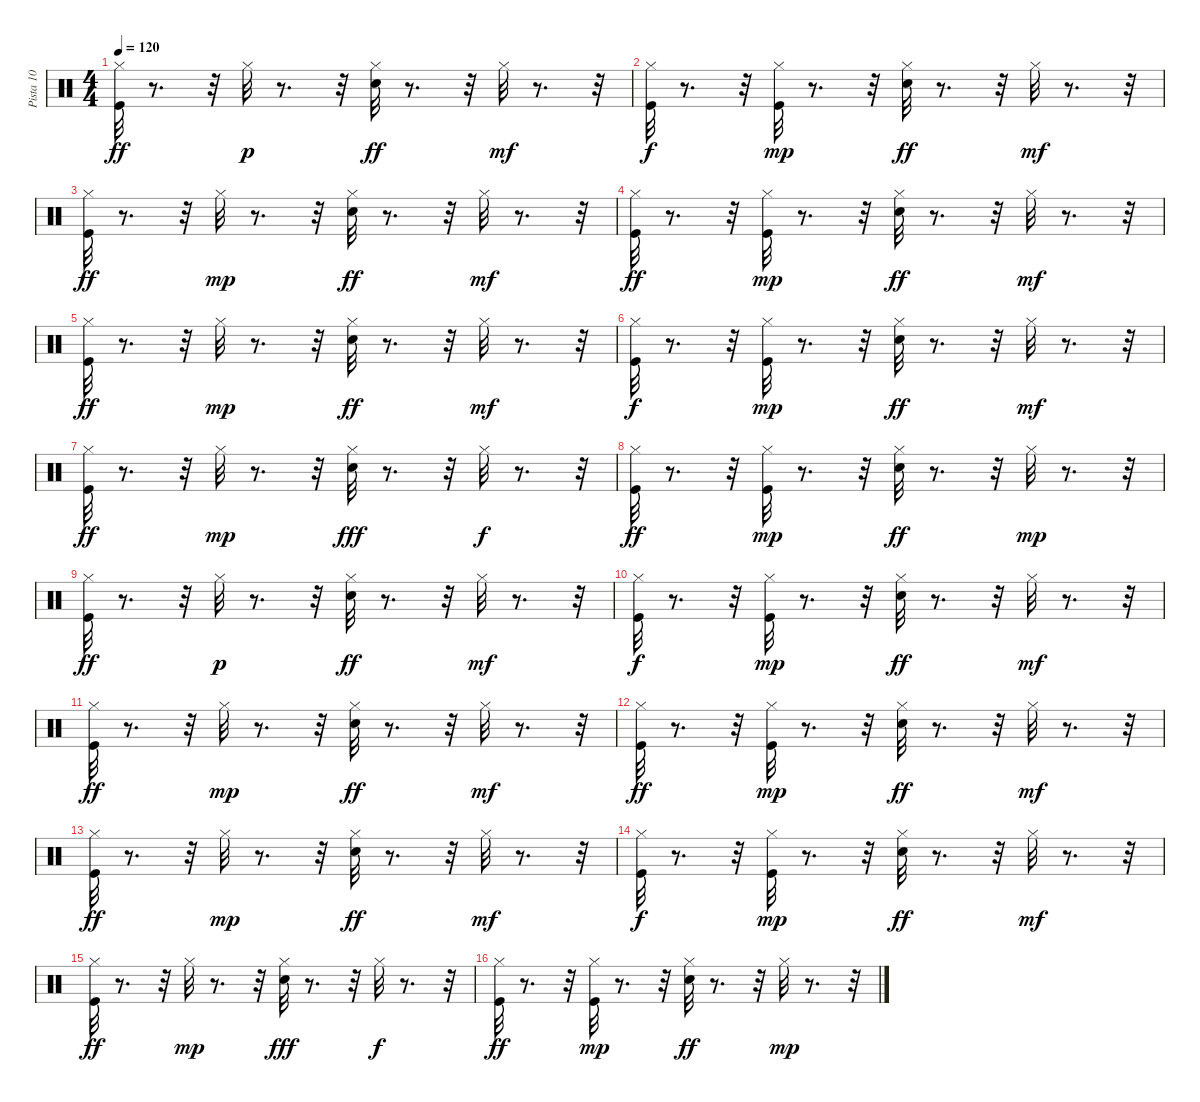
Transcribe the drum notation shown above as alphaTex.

\track ("Pista 10" "Pista 10") {instrument percussion}
\staff {score}
\articulation defaults
\ts (4 4)
\tempo 120
\clef neutral
\ks c
("Kick (hit)" "Hi-Hat (closed)").32{dy ff} r.8{d} r.32 "Hi-Hat (closed)".32{dy p} r.8{d} r.32 ("Snare (hit) 2" "Hi-Hat (closed)").32{dy ff} r.8{d} r.32 "Hi-Hat (closed)".32{dy mf} r.8{d} r.32 |
("Kick (hit)" "Hi-Hat (closed)").32{dy f} r.8{d} r.32 ("Kick (hit)" "Hi-Hat (closed)").32{dy mp} r.8{d} r.32 ("Snare (hit) 2" "Hi-Hat (closed)").32{dy ff} r.8{d} r.32 "Hi-Hat (closed)".32{dy mf} r.8{d} r.32 |
("Kick (hit)" "Hi-Hat (closed)").32{dy ff} r.8{d} r.32 "Hi-Hat (closed)".32{dy mp} r.8{d} r.32 ("Snare (hit) 2" "Hi-Hat (closed)").32{dy ff} r.8{d} r.32 "Hi-Hat (closed)".32{dy mf} r.8{d} r.32 |
("Kick (hit)" "Hi-Hat (closed)").32{dy ff} r.8{d} r.32 ("Kick (hit)" "Hi-Hat (closed)").32{dy mp} r.8{d} r.32 ("Snare (hit) 2" "Hi-Hat (closed)").32{dy ff} r.8{d} r.32 "Hi-Hat (closed)".32{dy mf} r.8{d} r.32 |
("Kick (hit)" "Hi-Hat (closed)").32{dy ff} r.8{d} r.32 "Hi-Hat (closed)".32{dy mp} r.8{d} r.32 ("Snare (hit) 2" "Hi-Hat (closed)").32{dy ff} r.8{d} r.32 "Hi-Hat (closed)".32{dy mf} r.8{d} r.32 |
("Kick (hit)" "Hi-Hat (closed)").32{dy f} r.8{d} r.32 ("Kick (hit)" "Hi-Hat (closed)").32{dy mp} r.8{d} r.32 ("Snare (hit) 2" "Hi-Hat (closed)").32{dy ff} r.8{d} r.32 "Hi-Hat (closed)".32{dy mf} r.8{d} r.32 |
("Kick (hit)" "Hi-Hat (closed)").32{dy ff} r.8{d} r.32 "Hi-Hat (closed)".32{dy mp} r.8{d} r.32 ("Snare (hit) 2" "Hi-Hat (closed)").32{dy fff} r.8{d} r.32 "Hi-Hat (closed)".32{dy f} r.8{d} r.32 |
("Kick (hit)" "Hi-Hat (closed)").32{dy ff} r.8{d} r.32 ("Kick (hit)" "Hi-Hat (closed)").32{dy mp} r.8{d} r.32 ("Snare (hit) 2" "Hi-Hat (closed)").32{dy ff} r.8{d} r.32 "Hi-Hat (closed)".32{dy mp} r.8{d} r.32 |
("Kick (hit)" "Hi-Hat (closed)").32{dy ff} r.8{d} r.32 "Hi-Hat (closed)".32{dy p} r.8{d} r.32 ("Snare (hit) 2" "Hi-Hat (closed)").32{dy ff} r.8{d} r.32 "Hi-Hat (closed)".32{dy mf} r.8{d} r.32 |
("Kick (hit)" "Hi-Hat (closed)").32{dy f} r.8{d} r.32 ("Kick (hit)" "Hi-Hat (closed)").32{dy mp} r.8{d} r.32 ("Snare (hit) 2" "Hi-Hat (closed)").32{dy ff} r.8{d} r.32 "Hi-Hat (closed)".32{dy mf} r.8{d} r.32 |
("Kick (hit)" "Hi-Hat (closed)").32{dy ff} r.8{d} r.32 "Hi-Hat (closed)".32{dy mp} r.8{d} r.32 ("Snare (hit) 2" "Hi-Hat (closed)").32{dy ff} r.8{d} r.32 "Hi-Hat (closed)".32{dy mf} r.8{d} r.32 |
("Kick (hit)" "Hi-Hat (closed)").32{dy ff} r.8{d} r.32 ("Kick (hit)" "Hi-Hat (closed)").32{dy mp} r.8{d} r.32 ("Snare (hit) 2" "Hi-Hat (closed)").32{dy ff} r.8{d} r.32 "Hi-Hat (closed)".32{dy mf} r.8{d} r.32 |
("Kick (hit)" "Hi-Hat (closed)").32{dy ff} r.8{d} r.32 "Hi-Hat (closed)".32{dy mp} r.8{d} r.32 ("Snare (hit) 2" "Hi-Hat (closed)").32{dy ff} r.8{d} r.32 "Hi-Hat (closed)".32{dy mf} r.8{d} r.32 |
("Kick (hit)" "Hi-Hat (closed)").32{dy f} r.8{d} r.32 ("Kick (hit)" "Hi-Hat (closed)").32{dy mp} r.8{d} r.32 ("Snare (hit) 2" "Hi-Hat (closed)").32{dy ff} r.8{d} r.32 "Hi-Hat (closed)".32{dy mf} r.8{d} r.32 |
("Kick (hit)" "Hi-Hat (closed)").32{dy ff} r.8{d} r.32 "Hi-Hat (closed)".32{dy mp} r.8{d} r.32 ("Snare (hit) 2" "Hi-Hat (closed)").32{dy fff} r.8{d} r.32 "Hi-Hat (closed)".32{dy f} r.8{d} r.32 |
("Kick (hit)" "Hi-Hat (closed)").32{dy ff} r.8{d} r.32 ("Kick (hit)" "Hi-Hat (closed)").32{dy mp} r.8{d} r.32 ("Snare (hit) 2" "Hi-Hat (closed)").32{dy ff} r.8{d} r.32 "Hi-Hat (closed)".32{dy mp} r.8{d} r.32
